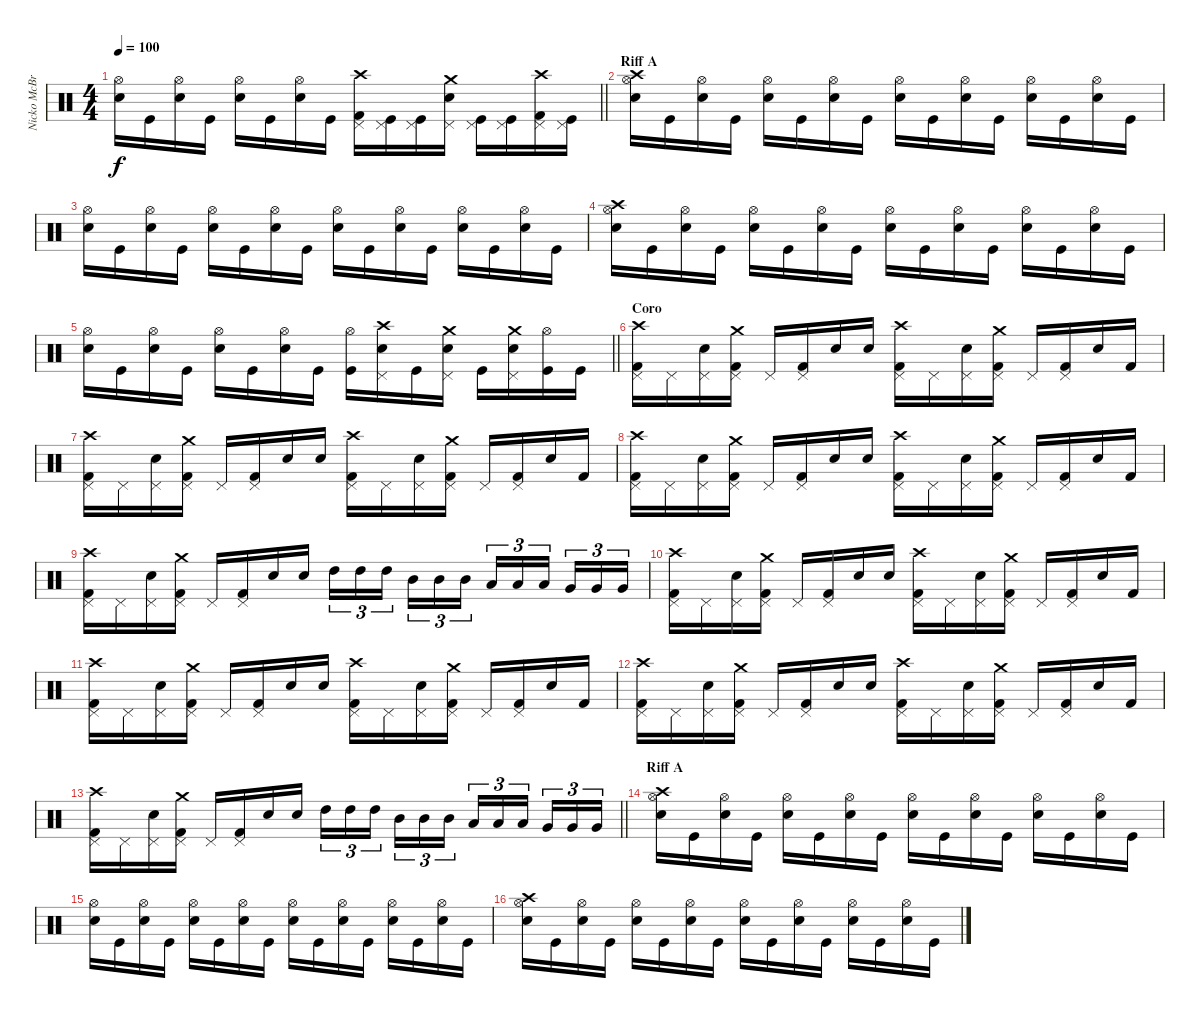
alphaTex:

\track ("Nicko McBrain" "Nicko McBr") {instrument percussion}
\staff {score}
\articulation defaults
\ts (4 4)
\tempo 100
\clef neutral
\barLineRight lightlight
\ks c
("Snare (hit) 2" "Hi-Hat (open)").16{dy f} "Kick (hit)".16 ("Snare (hit) 2" "Hi-Hat (open)").16 "Kick (hit)".16 ("Snare (hit) 2" "Hi-Hat (open)").16 "Kick (hit)".16 ("Snare (hit) 2" "Hi-Hat (open)").16 "Kick (hit)".16 ("Kick (hit) 2" "Pedal Hi-Hat (hit)" "Crash high (hit)").16 ("Kick (hit)" "Pedal Hi-Hat (hit)").16 ("Kick (hit)" "Pedal Hi-Hat (hit)").16 ("Snare (hit) 2" "Pedal Hi-Hat (hit)" "Crash medium (hit)").16 ("Kick (hit)" "Pedal Hi-Hat (hit)").16 ("Kick (hit)" "Pedal Hi-Hat (hit)").16 ("Kick (hit) 2" "Pedal Hi-Hat (hit)" "Crash high (hit)").16 ("Kick (hit)" "Pedal Hi-Hat (hit)").16 |
\section ("" "Riff A")
("Snare (hit) 2" "Hi-Hat (open)" "Crash high (hit)").16 "Kick (hit)".16 ("Snare (hit) 2" "Hi-Hat (open)").16 "Kick (hit)".16 ("Snare (hit) 2" "Hi-Hat (open)").16 "Kick (hit)".16 ("Snare (hit) 2" "Hi-Hat (open)").16 "Kick (hit)".16 ("Snare (hit) 2" "Hi-Hat (open)").16 "Kick (hit)".16 ("Snare (hit) 2" "Hi-Hat (open)").16 "Kick (hit)".16 ("Snare (hit) 2" "Hi-Hat (open)").16 "Kick (hit)".16 ("Snare (hit) 2" "Hi-Hat (open)").16 "Kick (hit)".16 |
("Snare (hit) 2" "Hi-Hat (open)").16 "Kick (hit)".16 ("Snare (hit) 2" "Hi-Hat (open)").16 "Kick (hit)".16 ("Snare (hit) 2" "Hi-Hat (open)").16 "Kick (hit)".16 ("Snare (hit) 2" "Hi-Hat (open)").16 "Kick (hit)".16 ("Snare (hit) 2" "Hi-Hat (open)").16 "Kick (hit)".16 ("Snare (hit) 2" "Hi-Hat (open)").16 "Kick (hit)".16 ("Snare (hit) 2" "Hi-Hat (open)").16 "Kick (hit)".16 ("Snare (hit) 2" "Hi-Hat (open)").16 "Kick (hit)".16 |
("Snare (hit) 2" "Hi-Hat (open)" "Crash high (hit)").16 "Kick (hit)".16 ("Snare (hit) 2" "Hi-Hat (open)").16 "Kick (hit)".16 ("Snare (hit) 2" "Hi-Hat (open)").16 "Kick (hit)".16 ("Snare (hit) 2" "Hi-Hat (open)").16 "Kick (hit)".16 ("Snare (hit) 2" "Hi-Hat (open)").16 "Kick (hit)".16 ("Snare (hit) 2" "Hi-Hat (open)").16 "Kick (hit)".16 ("Snare (hit) 2" "Hi-Hat (open)").16 "Kick (hit)".16 ("Snare (hit) 2" "Hi-Hat (open)").16 "Kick (hit)".16 |
\barLineRight lightlight
("Snare (hit) 2" "Hi-Hat (open)").16 "Kick (hit)".16 ("Snare (hit) 2" "Hi-Hat (open)").16 "Kick (hit)".16 ("Snare (hit) 2" "Hi-Hat (open)").16 "Kick (hit)".16 ("Snare (hit) 2" "Hi-Hat (open)").16 "Kick (hit)".16 ("Kick (hit)" "Hi-Hat (open)").16 ("Snare (hit) 2" "Pedal Hi-Hat (hit)" "Crash high (hit)").16 "Kick (hit)".16 ("Snare (hit) 2" "Pedal Hi-Hat (hit)" "Crash medium (hit)").16 "Kick (hit)".16 ("Snare (hit) 2" "Pedal Hi-Hat (hit)" "Crash medium (hit)").16 ("Kick (hit)" "Hi-Hat (open)").16 "Kick (hit)".16 |
\section ("" "Coro")
("Kick (hit) 2" "Pedal Hi-Hat (hit)" "Crash high (hit)").16 "Pedal Hi-Hat (hit)".16 ("Snare (hit) 2" "Pedal Hi-Hat (hit)").16 ("Kick (hit) 2" "Pedal Hi-Hat (hit)" "Crash medium (hit)").16 "Pedal Hi-Hat (hit)".16 ("Kick (hit) 2" "Pedal Hi-Hat (hit)").16 "Snare (hit) 2".16 "Snare (hit) 2".16 ("Kick (hit) 2" "Pedal Hi-Hat (hit)" "Crash high (hit)").16 "Pedal Hi-Hat (hit)".16 ("Snare (hit) 2" "Pedal Hi-Hat (hit)").16 ("Kick (hit) 2" "Pedal Hi-Hat (hit)" "Crash medium (hit)").16 "Pedal Hi-Hat (hit)".16 ("Kick (hit) 2" "Pedal Hi-Hat (hit)").16 "Snare (hit) 2".16 "Kick (hit) 2".16 |
("Kick (hit) 2" "Pedal Hi-Hat (hit)" "Crash high (hit)").16 "Pedal Hi-Hat (hit)".16 ("Snare (hit) 2" "Pedal Hi-Hat (hit)").16 ("Kick (hit) 2" "Pedal Hi-Hat (hit)" "Crash medium (hit)").16 "Pedal Hi-Hat (hit)".16 ("Kick (hit) 2" "Pedal Hi-Hat (hit)").16 "Snare (hit) 2".16 "Snare (hit) 2".16 ("Kick (hit) 2" "Pedal Hi-Hat (hit)" "Crash high (hit)").16 "Pedal Hi-Hat (hit)".16 ("Snare (hit) 2" "Pedal Hi-Hat (hit)").16 ("Kick (hit) 2" "Pedal Hi-Hat (hit)" "Crash medium (hit)").16 "Pedal Hi-Hat (hit)".16 ("Kick (hit) 2" "Pedal Hi-Hat (hit)").16 "Snare (hit) 2".16 "Kick (hit) 2".16 |
("Kick (hit) 2" "Pedal Hi-Hat (hit)" "Crash high (hit)").16 "Pedal Hi-Hat (hit)".16 ("Snare (hit) 2" "Pedal Hi-Hat (hit)").16 ("Kick (hit) 2" "Pedal Hi-Hat (hit)" "Crash medium (hit)").16 "Pedal Hi-Hat (hit)".16 ("Kick (hit) 2" "Pedal Hi-Hat (hit)").16 "Snare (hit) 2".16 "Snare (hit) 2".16 ("Kick (hit) 2" "Pedal Hi-Hat (hit)" "Crash high (hit)").16 "Pedal Hi-Hat (hit)".16 ("Snare (hit) 2" "Pedal Hi-Hat (hit)").16 ("Kick (hit) 2" "Pedal Hi-Hat (hit)" "Crash medium (hit)").16 "Pedal Hi-Hat (hit)".16 ("Kick (hit) 2" "Pedal Hi-Hat (hit)").16 "Snare (hit) 2".16 "Kick (hit) 2".16 |
("Kick (hit) 2" "Pedal Hi-Hat (hit)" "Crash high (hit)").16 "Pedal Hi-Hat (hit)".16 ("Snare (hit) 2" "Pedal Hi-Hat (hit)").16 ("Kick (hit) 2" "Pedal Hi-Hat (hit)" "Crash medium (hit)").16 "Pedal Hi-Hat (hit)".16 ("Kick (hit) 2" "Pedal Hi-Hat (hit)").16 "Snare (hit) 2".16 "Snare (hit) 2".16 "High Tom (hit)".16{tu (3 2)} "High Tom (hit)".16{tu (3 2)} "High Tom (hit)".16{tu (3 2) beam splitsecondary} "Mid Tom (hit)".16{tu (3 2)} "Mid Tom (hit)".16{tu (3 2)} "Mid Tom (hit)".16{tu (3 2)} "Low Tom (hit)".16{tu (3 2)} "Low Tom (hit)".16{tu (3 2)} "Low Tom (hit)".16{tu (3 2) beam splitsecondary} "Very Low Tom (hit)".16{tu (3 2)} "Very Low Tom (hit)".16{tu (3 2)} "Very Low Tom (hit)".16{tu (3 2)} |
("Kick (hit) 2" "Pedal Hi-Hat (hit)" "Crash high (hit)").16 "Pedal Hi-Hat (hit)".16 ("Snare (hit) 2" "Pedal Hi-Hat (hit)").16 ("Kick (hit) 2" "Pedal Hi-Hat (hit)" "Crash medium (hit)").16 "Pedal Hi-Hat (hit)".16 ("Kick (hit) 2" "Pedal Hi-Hat (hit)").16 "Snare (hit) 2".16 "Snare (hit) 2".16 ("Kick (hit) 2" "Pedal Hi-Hat (hit)" "Crash high (hit)").16 "Pedal Hi-Hat (hit)".16 ("Snare (hit) 2" "Pedal Hi-Hat (hit)").16 ("Kick (hit) 2" "Pedal Hi-Hat (hit)" "Crash medium (hit)").16 "Pedal Hi-Hat (hit)".16 ("Kick (hit) 2" "Pedal Hi-Hat (hit)").16 "Snare (hit) 2".16 "Kick (hit) 2".16 |
("Kick (hit) 2" "Pedal Hi-Hat (hit)" "Crash high (hit)").16 "Pedal Hi-Hat (hit)".16 ("Snare (hit) 2" "Pedal Hi-Hat (hit)").16 ("Kick (hit) 2" "Pedal Hi-Hat (hit)" "Crash medium (hit)").16 "Pedal Hi-Hat (hit)".16 ("Kick (hit) 2" "Pedal Hi-Hat (hit)").16 "Snare (hit) 2".16 "Snare (hit) 2".16 ("Kick (hit) 2" "Pedal Hi-Hat (hit)" "Crash high (hit)").16 "Pedal Hi-Hat (hit)".16 ("Snare (hit) 2" "Pedal Hi-Hat (hit)").16 ("Kick (hit) 2" "Pedal Hi-Hat (hit)" "Crash medium (hit)").16 "Pedal Hi-Hat (hit)".16 ("Kick (hit) 2" "Pedal Hi-Hat (hit)").16 "Snare (hit) 2".16 "Kick (hit) 2".16 |
("Kick (hit) 2" "Pedal Hi-Hat (hit)" "Crash high (hit)").16 "Pedal Hi-Hat (hit)".16 ("Snare (hit) 2" "Pedal Hi-Hat (hit)").16 ("Kick (hit) 2" "Pedal Hi-Hat (hit)" "Crash medium (hit)").16 "Pedal Hi-Hat (hit)".16 ("Kick (hit) 2" "Pedal Hi-Hat (hit)").16 "Snare (hit) 2".16 "Snare (hit) 2".16 ("Kick (hit) 2" "Pedal Hi-Hat (hit)" "Crash high (hit)").16 "Pedal Hi-Hat (hit)".16 ("Snare (hit) 2" "Pedal Hi-Hat (hit)").16 ("Kick (hit) 2" "Pedal Hi-Hat (hit)" "Crash medium (hit)").16 "Pedal Hi-Hat (hit)".16 ("Kick (hit) 2" "Pedal Hi-Hat (hit)").16 "Snare (hit) 2".16 "Kick (hit) 2".16 |
\barLineRight lightlight
("Kick (hit) 2" "Pedal Hi-Hat (hit)" "Crash high (hit)").16 "Pedal Hi-Hat (hit)".16 ("Snare (hit) 2" "Pedal Hi-Hat (hit)").16 ("Kick (hit) 2" "Pedal Hi-Hat (hit)" "Crash medium (hit)").16 "Pedal Hi-Hat (hit)".16 ("Kick (hit) 2" "Pedal Hi-Hat (hit)").16 "Snare (hit) 2".16 "Snare (hit) 2".16 "High Tom (hit)".16{tu (3 2)} "High Tom (hit)".16{tu (3 2)} "High Tom (hit)".16{tu (3 2) beam splitsecondary} "Mid Tom (hit)".16{tu (3 2)} "Mid Tom (hit)".16{tu (3 2)} "Mid Tom (hit)".16{tu (3 2)} "Low Tom (hit)".16{tu (3 2)} "Low Tom (hit)".16{tu (3 2)} "Low Tom (hit)".16{tu (3 2) beam splitsecondary} "Very Low Tom (hit)".16{tu (3 2)} "Very Low Tom (hit)".16{tu (3 2)} "Very Low Tom (hit)".16{tu (3 2)} |
\section ("" "Riff A")
("Snare (hit) 2" "Hi-Hat (open)" "Crash high (hit)").16 "Kick (hit)".16 ("Snare (hit) 2" "Hi-Hat (open)").16 "Kick (hit)".16 ("Snare (hit) 2" "Hi-Hat (open)").16 "Kick (hit)".16 ("Snare (hit) 2" "Hi-Hat (open)").16 "Kick (hit)".16 ("Snare (hit) 2" "Hi-Hat (open)").16 "Kick (hit)".16 ("Snare (hit) 2" "Hi-Hat (open)").16 "Kick (hit)".16 ("Snare (hit) 2" "Hi-Hat (open)").16 "Kick (hit)".16 ("Snare (hit) 2" "Hi-Hat (open)").16 "Kick (hit)".16 |
("Snare (hit) 2" "Hi-Hat (open)").16 "Kick (hit)".16 ("Snare (hit) 2" "Hi-Hat (open)").16 "Kick (hit)".16 ("Snare (hit) 2" "Hi-Hat (open)").16 "Kick (hit)".16 ("Snare (hit) 2" "Hi-Hat (open)").16 "Kick (hit)".16 ("Snare (hit) 2" "Hi-Hat (open)").16 "Kick (hit)".16 ("Snare (hit) 2" "Hi-Hat (open)").16 "Kick (hit)".16 ("Snare (hit) 2" "Hi-Hat (open)").16 "Kick (hit)".16 ("Snare (hit) 2" "Hi-Hat (open)").16 "Kick (hit)".16 |
("Snare (hit) 2" "Hi-Hat (open)" "Crash high (hit)").16 "Kick (hit)".16 ("Snare (hit) 2" "Hi-Hat (open)").16 "Kick (hit)".16 ("Snare (hit) 2" "Hi-Hat (open)").16 "Kick (hit)".16 ("Snare (hit) 2" "Hi-Hat (open)").16 "Kick (hit)".16 ("Snare (hit) 2" "Hi-Hat (open)").16 "Kick (hit)".16 ("Snare (hit) 2" "Hi-Hat (open)").16 "Kick (hit)".16 ("Snare (hit) 2" "Hi-Hat (open)").16 "Kick (hit)".16 ("Snare (hit) 2" "Hi-Hat (open)").16 "Kick (hit)".16
